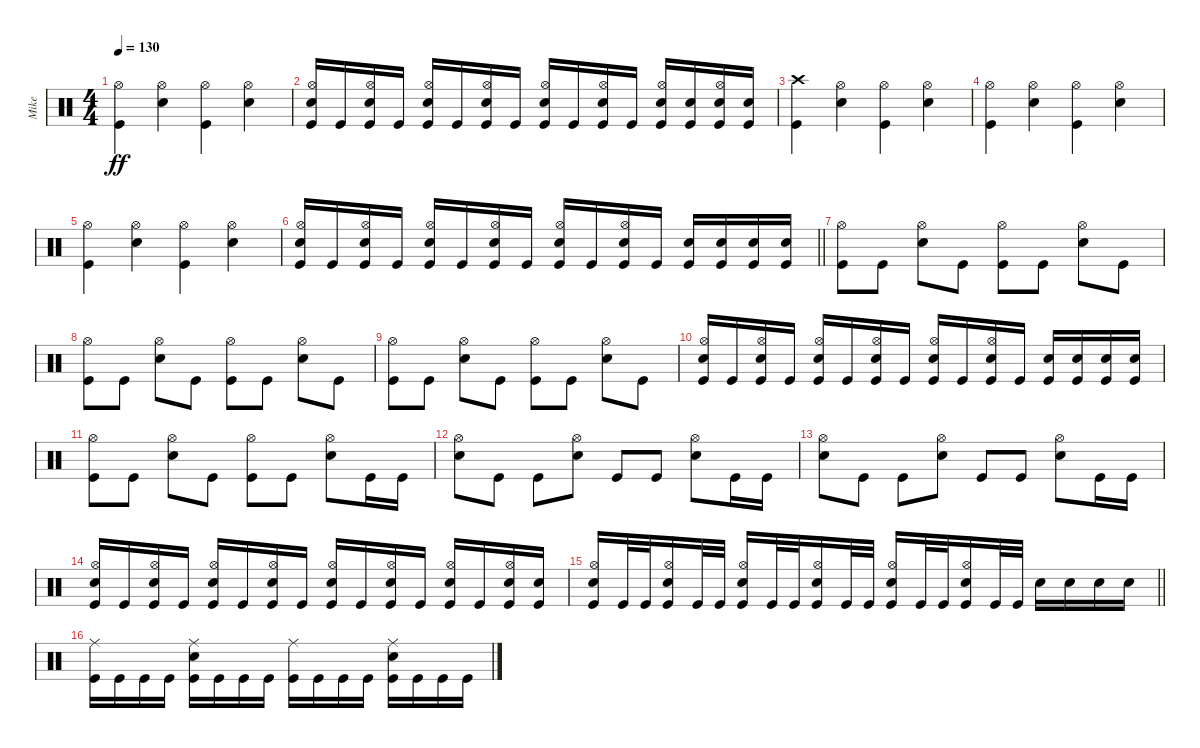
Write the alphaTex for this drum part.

\track ("Mike" "Mike") {instrument percussion}
\staff {score}
\articulation defaults
\ts (4 4)
\tempo 130
\clef neutral
\ks c
("Kick (hit)" "Hi-Hat (open)").4{dy ff} ("Hi-Hat (open)" "Snare (hit) 2").4 ("Kick (hit)" "Hi-Hat (open)").4 ("Hi-Hat (open)" "Snare (hit) 2").4 |
("Hi-Hat (open)" "Snare (hit) 2" "Kick (hit)").16 "Kick (hit)".16 ("Hi-Hat (open)" "Snare (hit) 2" "Kick (hit)").16 "Kick (hit)".16 ("Hi-Hat (open)" "Snare (hit) 2" "Kick (hit)").16 "Kick (hit)".16 ("Hi-Hat (open)" "Snare (hit) 2" "Kick (hit)").16 "Kick (hit)".16 ("Hi-Hat (open)" "Snare (hit) 2" "Kick (hit)").16 "Kick (hit)".16 ("Hi-Hat (open)" "Snare (hit) 2" "Kick (hit)").16 "Kick (hit)".16 ("Hi-Hat (open)" "Snare (hit) 2" "Kick (hit)").16 ("Snare (hit) 2" "Kick (hit)").16 ("Hi-Hat (open)" "Snare (hit) 2" "Kick (hit)").16 ("Snare (hit) 2" "Kick (hit)").16 |
("Crash high (hit)" "Kick (hit)").4 ("Snare (hit) 2" "Hi-Hat (open)").4 ("Hi-Hat (open)" "Kick (hit)").4 ("Snare (hit) 2" "Hi-Hat (open)").4 |
("Hi-Hat (open)" "Kick (hit)").4 ("Snare (hit) 2" "Hi-Hat (open)").4 ("Kick (hit)" "Hi-Hat (open)").4 ("Hi-Hat (open)" "Snare (hit) 2").4 |
("Kick (hit)" "Hi-Hat (open)").4 ("Hi-Hat (open)" "Snare (hit) 2").4 ("Kick (hit)" "Hi-Hat (open)").4 ("Hi-Hat (open)" "Snare (hit) 2").4 |
\barLineRight lightlight
("Hi-Hat (open)" "Snare (hit) 2" "Kick (hit)").16 "Kick (hit)".16 ("Hi-Hat (open)" "Snare (hit) 2" "Kick (hit)").16 "Kick (hit)".16 ("Hi-Hat (open)" "Snare (hit) 2" "Kick (hit)").16 "Kick (hit)".16 ("Hi-Hat (open)" "Snare (hit) 2" "Kick (hit)").16 "Kick (hit)".16 ("Hi-Hat (open)" "Snare (hit) 2" "Kick (hit)").16 "Kick (hit)".16 ("Hi-Hat (open)" "Snare (hit) 2" "Kick (hit)").16 "Kick (hit)".16 ("Snare (hit) 2" "Kick (hit)").16 ("Snare (hit) 2" "Kick (hit)").16 ("Snare (hit) 2" "Kick (hit)").16 ("Snare (hit) 2" "Kick (hit)").16 |
("Hi-Hat (open)" "Kick (hit)").8 "Kick (hit)".8 ("Snare (hit) 2" "Hi-Hat (open)").8 "Kick (hit)".8 ("Kick (hit)" "Hi-Hat (open)").8 "Kick (hit)".8 ("Snare (hit) 2" "Hi-Hat (open)").8 "Kick (hit)".8 |
("Kick (hit)" "Hi-Hat (open)").8 "Kick (hit)".8 ("Snare (hit) 2" "Hi-Hat (open)").8 "Kick (hit)".8 ("Kick (hit)" "Hi-Hat (open)").8 "Kick (hit)".8 ("Snare (hit) 2" "Hi-Hat (open)").8 "Kick (hit)".8 |
("Hi-Hat (open)" "Kick (hit)").8 "Kick (hit)".8 ("Snare (hit) 2" "Hi-Hat (open)").8 "Kick (hit)".8 ("Kick (hit)" "Hi-Hat (open)").8 "Kick (hit)".8 ("Snare (hit) 2" "Hi-Hat (open)").8 "Kick (hit)".8 |
("Hi-Hat (open)" "Snare (hit) 2" "Kick (hit)").16 "Kick (hit)".16 ("Hi-Hat (open)" "Snare (hit) 2" "Kick (hit)").16 "Kick (hit)".16 ("Hi-Hat (open)" "Snare (hit) 2" "Kick (hit)").16 "Kick (hit)".16 ("Hi-Hat (open)" "Snare (hit) 2" "Kick (hit)").16 "Kick (hit)".16 ("Hi-Hat (open)" "Snare (hit) 2" "Kick (hit)").16 "Kick (hit)".16 ("Hi-Hat (open)" "Snare (hit) 2" "Kick (hit)").16 "Kick (hit)".16 ("Snare (hit) 2" "Kick (hit)").16 ("Snare (hit) 2" "Kick (hit)").16 ("Snare (hit) 2" "Kick (hit)").16 ("Snare (hit) 2" "Kick (hit)").16 |
("Hi-Hat (open)" "Kick (hit)").8 "Kick (hit)".8 ("Snare (hit) 2" "Hi-Hat (open)").8 "Kick (hit)".8 ("Kick (hit)" "Hi-Hat (open)").8 "Kick (hit)".8 ("Snare (hit) 2" "Hi-Hat (open)").8 "Kick (hit)".16 "Kick (hit)".16 |
("Hi-Hat (open)" "Snare (hit) 2").8 "Kick (hit)".8 "Kick (hit)".8 ("Hi-Hat (open)" "Snare (hit) 2").8 "Kick (hit)".8 "Kick (hit)".8 ("Snare (hit) 2" "Hi-Hat (open)").8 "Kick (hit)".16 "Kick (hit)".16 |
("Hi-Hat (open)" "Snare (hit) 2").8 "Kick (hit)".8 "Kick (hit)".8 ("Hi-Hat (open)" "Snare (hit) 2").8 "Kick (hit)".8 "Kick (hit)".8 ("Snare (hit) 2" "Hi-Hat (open)").8 "Kick (hit)".16 "Kick (hit)".16 |
("Hi-Hat (open)" "Snare (hit) 2" "Kick (hit)").16 "Kick (hit)".16 ("Hi-Hat (open)" "Snare (hit) 2" "Kick (hit)").16 "Kick (hit)".16 ("Hi-Hat (open)" "Snare (hit) 2" "Kick (hit)").16 "Kick (hit)".16 ("Hi-Hat (open)" "Snare (hit) 2" "Kick (hit)").16 "Kick (hit)".16 ("Hi-Hat (open)" "Snare (hit) 2" "Kick (hit)").16 "Kick (hit)".16 ("Hi-Hat (open)" "Snare (hit) 2" "Kick (hit)").16 "Kick (hit)".16 ("Hi-Hat (open)" "Snare (hit) 2" "Kick (hit)").16 "Kick (hit)".16 ("Hi-Hat (open)" "Snare (hit) 2" "Kick (hit)").16 ("Snare (hit) 2" "Kick (hit)").16 |
\barLineRight lightlight
("Hi-Hat (open)" "Snare (hit) 2" "Kick (hit)").16 "Kick (hit)".32 "Kick (hit)".32 ("Hi-Hat (open)" "Snare (hit) 2" "Kick (hit)").16 "Kick (hit)".32 "Kick (hit)".32 ("Hi-Hat (open)" "Snare (hit) 2" "Kick (hit)").16 "Kick (hit)".32 "Kick (hit)".32 ("Hi-Hat (open)" "Snare (hit) 2" "Kick (hit)").16 "Kick (hit)".32 "Kick (hit)".32 ("Hi-Hat (open)" "Snare (hit) 2" "Kick (hit)").16 "Kick (hit)".32 "Kick (hit)".32 ("Hi-Hat (open)" "Snare (hit) 2" "Kick (hit)").16 "Kick (hit)".32 "Kick (hit)".32 "Snare (hit) 2".16 "Snare (hit) 2".16 "Snare (hit) 2".16 "Snare (hit) 2".16 |
("Ride (middle)" "Kick (hit)").16 "Kick (hit)".16 "Kick (hit)".16 "Kick (hit)".16 ("Snare (hit) 2" "Ride (middle)" "Kick (hit)").16 "Kick (hit)".16 "Kick (hit)".16 "Kick (hit)".16 ("Ride (middle)" "Kick (hit)").16 "Kick (hit)".16 "Kick (hit)".16 "Kick (hit)".16 ("Snare (hit) 2" "Ride (middle)" "Kick (hit)").16 "Kick (hit)".16 "Kick (hit)".16 "Kick (hit)".16
